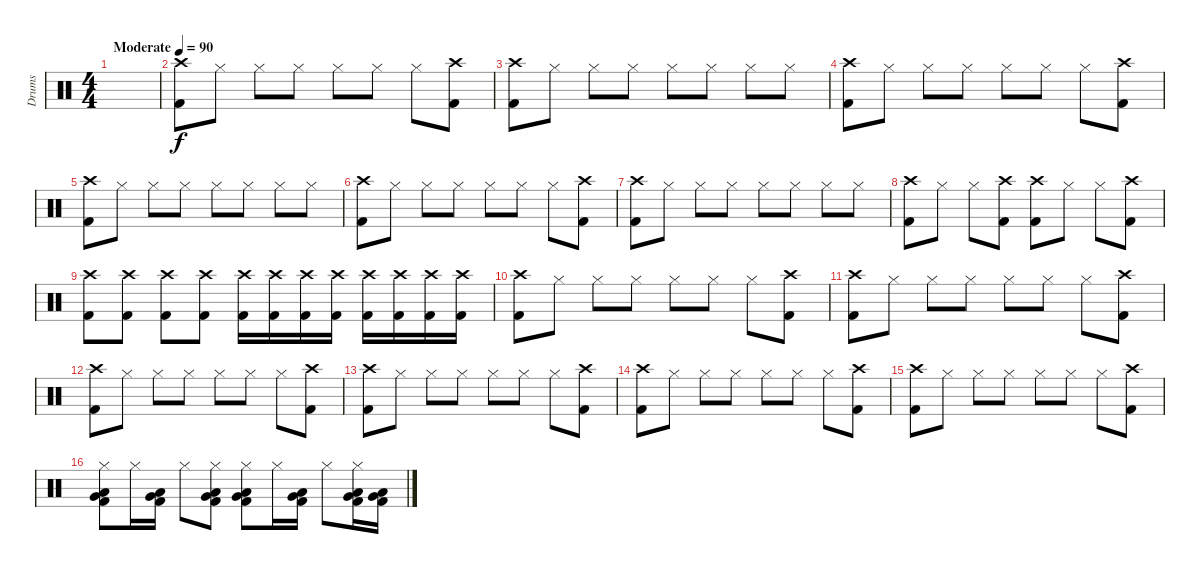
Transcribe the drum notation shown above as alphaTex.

\track ("Drums" "Drums") {mute instrument percussion}
\staff {score}
\articulation defaults
\ts (4 4)
\tempo (90 "Moderate")
\clef neutral
\ks c
|
("Kick (hit) 2" "Crash high (hit)").8 "Hi-Hat (closed)".8 "Hi-Hat (closed)".8 "Hi-Hat (closed)".8 "Hi-Hat (closed)".8 "Hi-Hat (closed)".8 "Hi-Hat (closed)".8 ("Kick (hit) 2" "Crash high (hit)").8 |
("Kick (hit) 2" "Crash high (hit)").8 "Hi-Hat (closed)".8 "Hi-Hat (closed)".8 "Hi-Hat (closed)".8 "Hi-Hat (closed)".8 "Hi-Hat (closed)".8 "Hi-Hat (closed)".8 "Hi-Hat (closed)".8 |
("Kick (hit) 2" "Crash high (hit)").8 "Hi-Hat (closed)".8 "Hi-Hat (closed)".8 "Hi-Hat (closed)".8 "Hi-Hat (closed)".8 "Hi-Hat (closed)".8 "Hi-Hat (closed)".8 ("Kick (hit) 2" "Crash high (hit)").8 |
("Kick (hit) 2" "Crash high (hit)").8 "Hi-Hat (closed)".8 "Hi-Hat (closed)".8 "Hi-Hat (closed)".8 "Hi-Hat (closed)".8 "Hi-Hat (closed)".8 "Hi-Hat (closed)".8 "Hi-Hat (closed)".8 |
("Kick (hit) 2" "Crash high (hit)").8 "Hi-Hat (closed)".8 "Hi-Hat (closed)".8 "Hi-Hat (closed)".8 "Hi-Hat (closed)".8 "Hi-Hat (closed)".8 "Hi-Hat (closed)".8 ("Kick (hit) 2" "Crash high (hit)").8 |
("Kick (hit) 2" "Crash high (hit)").8 "Hi-Hat (closed)".8 "Hi-Hat (closed)".8 "Hi-Hat (closed)".8 "Hi-Hat (closed)".8 "Hi-Hat (closed)".8 "Hi-Hat (closed)".8 "Hi-Hat (closed)".8 |
("Kick (hit) 2" "Crash high (hit)").8 "Hi-Hat (closed)".8 "Hi-Hat (closed)".8 ("Kick (hit) 2" "Crash high (hit)").8 ("Kick (hit) 2" "Crash high (hit)").8 "Hi-Hat (closed)".8 "Hi-Hat (closed)".8 ("Kick (hit) 2" "Crash high (hit)").8 |
("Kick (hit) 2" "Crash high (hit)").8 ("Kick (hit) 2" "Crash high (hit)").8 ("Kick (hit) 2" "Crash high (hit)").8 ("Kick (hit) 2" "Crash high (hit)").8 ("Kick (hit) 2" "Crash high (hit)").16 ("Kick (hit) 2" "Crash high (hit)").16 ("Kick (hit) 2" "Crash high (hit)").16 ("Kick (hit) 2" "Crash high (hit)").16 ("Kick (hit) 2" "Crash high (hit)").16 ("Kick (hit) 2" "Crash high (hit)").16 ("Kick (hit) 2" "Crash high (hit)").16 ("Kick (hit) 2" "Crash high (hit)").16 |
("Kick (hit) 2" "Crash high (hit)").8 "Hi-Hat (closed)".8 "Hi-Hat (closed)".8 "Hi-Hat (closed)".8 "Hi-Hat (closed)".8 "Hi-Hat (closed)".8 "Hi-Hat (closed)".8 ("Kick (hit) 2" "Crash high (hit)").8 |
("Kick (hit) 2" "Crash high (hit)").8 "Hi-Hat (closed)".8 "Hi-Hat (closed)".8 "Hi-Hat (closed)".8 "Hi-Hat (closed)".8 "Hi-Hat (closed)".8 "Hi-Hat (closed)".8 ("Kick (hit) 2" "Crash high (hit)").8 |
("Kick (hit) 2" "Crash high (hit)").8 "Hi-Hat (closed)".8 "Hi-Hat (closed)".8 "Hi-Hat (closed)".8 "Hi-Hat (closed)".8 "Hi-Hat (closed)".8 "Hi-Hat (closed)".8 ("Kick (hit) 2" "Crash high (hit)").8 |
("Kick (hit) 2" "Crash high (hit)").8 "Hi-Hat (closed)".8 "Hi-Hat (closed)".8 "Hi-Hat (closed)".8 "Hi-Hat (closed)".8 "Hi-Hat (closed)".8 "Hi-Hat (closed)".8 ("Kick (hit) 2" "Crash high (hit)").8 |
("Kick (hit) 2" "Crash high (hit)").8 "Hi-Hat (closed)".8 "Hi-Hat (closed)".8 "Hi-Hat (closed)".8 "Hi-Hat (closed)".8 "Hi-Hat (closed)".8 "Hi-Hat (closed)".8 ("Kick (hit) 2" "Crash high (hit)").8 |
("Kick (hit) 2" "Crash high (hit)").8 "Hi-Hat (closed)".8 "Hi-Hat (closed)".8 "Hi-Hat (closed)".8 "Hi-Hat (closed)".8 "Hi-Hat (closed)".8 "Hi-Hat (closed)".8 ("Kick (hit) 2" "Crash high (hit)").8 |
("Kick (hit) 2" "Very Low Tom (hit)" "Low Floor Tom (hit)" "Hi-Hat (closed)").8 "Hi-Hat (closed)".16 ("Kick (hit) 2" "Very Low Tom (hit)" "Low Floor Tom (hit)").16 "Hi-Hat (closed)".8 ("Kick (hit) 2" "Very Low Tom (hit)" "Low Floor Tom (hit)" "Hi-Hat (closed)").8 ("Kick (hit) 2" "Very Low Tom (hit)" "Low Floor Tom (hit)" "Hi-Hat (closed)").8 "Hi-Hat (closed)".16 ("Kick (hit) 2" "Very Low Tom (hit)" "Low Floor Tom (hit)").16 "Hi-Hat (closed)".8 ("Kick (hit) 2" "Very Low Tom (hit)" "Low Floor Tom (hit)" "Hi-Hat (closed)").16 ("Kick (hit) 2" "Very Low Tom (hit)" "Low Floor Tom (hit)").16
